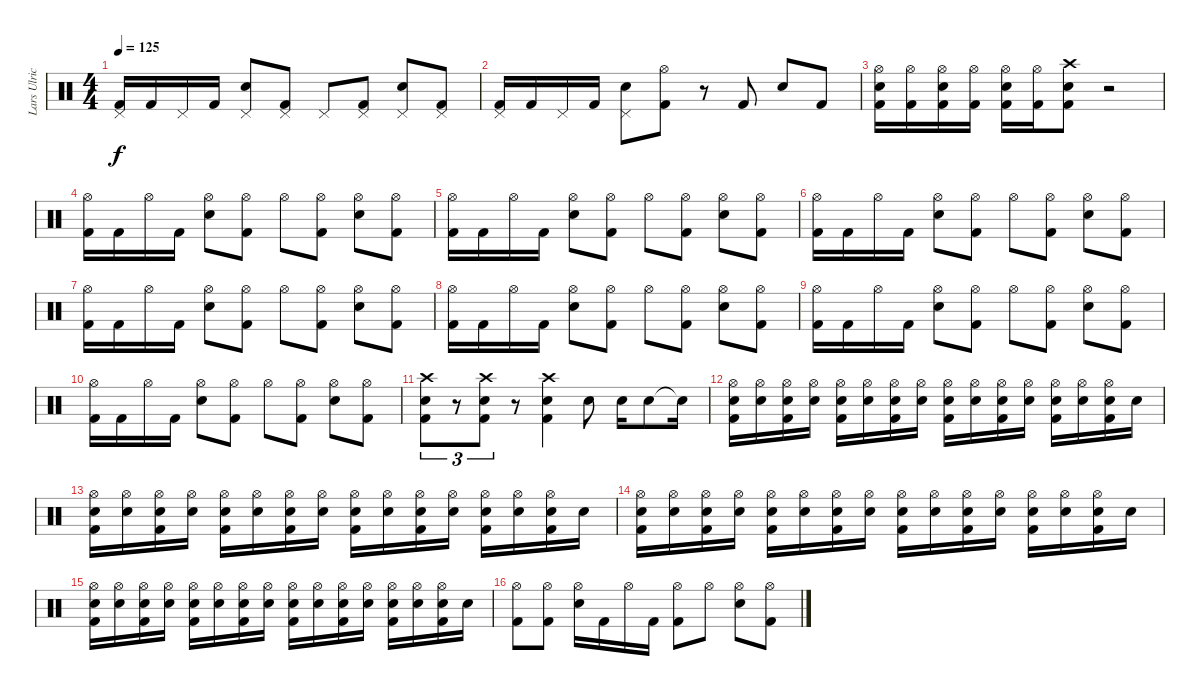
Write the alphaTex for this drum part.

\track ("Lars Ulrich" "Lars Ulric") {instrument percussion}
\staff {score}
\articulation defaults
\ts (4 4)
\tempo 125
\clef neutral
\ks c
("Pedal Hi-Hat (hit)" "Kick (hit) 2").16{dy f} "Kick (hit) 2".16 "Pedal Hi-Hat (hit)".16 "Kick (hit) 2".16 ("Pedal Hi-Hat (hit)" "Electric Snare (hit)").8 ("Pedal Hi-Hat (hit)" "Kick (hit) 2").8 "Pedal Hi-Hat (hit)".8 ("Pedal Hi-Hat (hit)" "Kick (hit) 2").8 ("Pedal Hi-Hat (hit)" "Electric Snare (hit)").8 ("Pedal Hi-Hat (hit)" "Kick (hit) 2").8 |
("Pedal Hi-Hat (hit)" "Kick (hit) 2").16 "Kick (hit) 2".16 "Pedal Hi-Hat (hit)".16 "Kick (hit) 2".16 ("Pedal Hi-Hat (hit)" "Electric Snare (hit)").8 ("Hi-Hat (open)" "Kick (hit) 2").8 r.8 "Kick (hit) 2".8 "Electric Snare (hit)".8 "Kick (hit) 2".8 |
("Hi-Hat (open)" "Electric Snare (hit)" "Kick (hit) 2").16 ("Hi-Hat (open)" "Kick (hit) 2").16 ("Hi-Hat (open)" "Electric Snare (hit)" "Kick (hit) 2").16 ("Hi-Hat (open)" "Kick (hit) 2").16 ("Hi-Hat (open)" "Electric Snare (hit)" "Kick (hit) 2").16 ("Hi-Hat (open)" "Kick (hit) 2").16 ("Crash high (hit)" "Electric Snare (hit)" "Kick (hit) 2").8 r.2 |
("Hi-Hat (open)" "Kick (hit) 2").16 "Kick (hit) 2".16 "Hi-Hat (open)".16 "Kick (hit) 2".16 ("Hi-Hat (open)" "Electric Snare (hit)").8 ("Hi-Hat (open)" "Kick (hit) 2").8 "Hi-Hat (open)".8 ("Hi-Hat (open)" "Kick (hit) 2").8 ("Hi-Hat (open)" "Electric Snare (hit)").8 ("Hi-Hat (open)" "Kick (hit) 2").8 |
("Hi-Hat (open)" "Kick (hit) 2").16 "Kick (hit) 2".16 "Hi-Hat (open)".16 "Kick (hit) 2".16 ("Hi-Hat (open)" "Electric Snare (hit)").8 ("Hi-Hat (open)" "Kick (hit) 2").8 "Hi-Hat (open)".8 ("Hi-Hat (open)" "Kick (hit) 2").8 ("Hi-Hat (open)" "Electric Snare (hit)").8 ("Hi-Hat (open)" "Kick (hit) 2").8 |
("Hi-Hat (open)" "Kick (hit) 2").16 "Kick (hit) 2".16 "Hi-Hat (open)".16 "Kick (hit) 2".16 ("Hi-Hat (open)" "Electric Snare (hit)").8 ("Hi-Hat (open)" "Kick (hit) 2").8 "Hi-Hat (open)".8 ("Hi-Hat (open)" "Kick (hit) 2").8 ("Hi-Hat (open)" "Electric Snare (hit)").8 ("Hi-Hat (open)" "Kick (hit) 2").8 |
("Hi-Hat (open)" "Kick (hit) 2").16 "Kick (hit) 2".16 "Hi-Hat (open)".16 "Kick (hit) 2".16 ("Hi-Hat (open)" "Electric Snare (hit)").8 ("Hi-Hat (open)" "Kick (hit) 2").8 "Hi-Hat (open)".8 ("Hi-Hat (open)" "Kick (hit) 2").8 ("Hi-Hat (open)" "Electric Snare (hit)").8 ("Hi-Hat (open)" "Kick (hit) 2").8 |
("Hi-Hat (open)" "Kick (hit) 2").16 "Kick (hit) 2".16 "Hi-Hat (open)".16 "Kick (hit) 2".16 ("Hi-Hat (open)" "Electric Snare (hit)").8 ("Hi-Hat (open)" "Kick (hit) 2").8 "Hi-Hat (open)".8 ("Hi-Hat (open)" "Kick (hit) 2").8 ("Hi-Hat (open)" "Electric Snare (hit)").8 ("Hi-Hat (open)" "Kick (hit) 2").8 |
("Hi-Hat (open)" "Kick (hit) 2").16 "Kick (hit) 2".16 "Hi-Hat (open)".16 "Kick (hit) 2".16 ("Hi-Hat (open)" "Electric Snare (hit)").8 ("Hi-Hat (open)" "Kick (hit) 2").8 "Hi-Hat (open)".8 ("Hi-Hat (open)" "Kick (hit) 2").8 ("Hi-Hat (open)" "Electric Snare (hit)").8 ("Hi-Hat (open)" "Kick (hit) 2").8 |
("Hi-Hat (open)" "Kick (hit) 2").16 "Kick (hit) 2".16 "Hi-Hat (open)".16 "Kick (hit) 2".16 ("Hi-Hat (open)" "Electric Snare (hit)").8 ("Hi-Hat (open)" "Kick (hit) 2").8 "Hi-Hat (open)".8 ("Hi-Hat (open)" "Kick (hit) 2").8 ("Hi-Hat (open)" "Electric Snare (hit)").8 ("Hi-Hat (open)" "Kick (hit) 2").8 |
("Crash high (hit)" "Electric Snare (hit)" "Kick (hit) 2").8{tu (3 2)} r.8{tu (3 2)} ("Crash high (hit)" "Electric Snare (hit)" "Kick (hit) 2").8{tu (3 2)} r.8 ("Crash high (hit)" "Electric Snare (hit)" "Kick (hit) 2").4 "Electric Snare (hit)".8 "Electric Snare (hit)".16 "Electric Snare (hit)".8 "Snare (hit)"{t}.16 |
("Hi-Hat (open)" "Electric Snare (hit)" "Kick (hit) 2").16 ("Hi-Hat (open)" "Electric Snare (hit)").16 ("Hi-Hat (open)" "Electric Snare (hit)" "Kick (hit) 2").16 ("Hi-Hat (open)" "Electric Snare (hit)").16 ("Hi-Hat (open)" "Electric Snare (hit)" "Kick (hit) 2").16 ("Hi-Hat (open)" "Electric Snare (hit)").16 ("Hi-Hat (open)" "Electric Snare (hit)" "Kick (hit) 2").16 ("Hi-Hat (open)" "Electric Snare (hit)").16 ("Hi-Hat (open)" "Electric Snare (hit)" "Kick (hit) 2").16 ("Hi-Hat (open)" "Electric Snare (hit)").16 ("Hi-Hat (open)" "Electric Snare (hit)" "Kick (hit) 2").16 ("Hi-Hat (open)" "Electric Snare (hit)").16 ("Hi-Hat (open)" "Electric Snare (hit)" "Kick (hit) 2").16 ("Hi-Hat (open)" "Electric Snare (hit)").16 ("Hi-Hat (open)" "Electric Snare (hit)" "Kick (hit) 2").16 "Electric Snare (hit)".16 |
("Hi-Hat (open)" "Electric Snare (hit)" "Kick (hit) 2").16 ("Hi-Hat (open)" "Electric Snare (hit)").16 ("Hi-Hat (open)" "Electric Snare (hit)" "Kick (hit) 2").16 ("Hi-Hat (open)" "Electric Snare (hit)").16 ("Hi-Hat (open)" "Electric Snare (hit)" "Kick (hit) 2").16 ("Hi-Hat (open)" "Electric Snare (hit)").16 ("Hi-Hat (open)" "Electric Snare (hit)" "Kick (hit) 2").16 ("Hi-Hat (open)" "Electric Snare (hit)").16 ("Hi-Hat (open)" "Electric Snare (hit)" "Kick (hit) 2").16 ("Hi-Hat (open)" "Electric Snare (hit)").16 ("Hi-Hat (open)" "Electric Snare (hit)" "Kick (hit) 2").16 ("Hi-Hat (open)" "Electric Snare (hit)").16 ("Hi-Hat (open)" "Electric Snare (hit)" "Kick (hit) 2").16 ("Hi-Hat (open)" "Electric Snare (hit)").16 ("Hi-Hat (open)" "Electric Snare (hit)" "Kick (hit) 2").16 "Electric Snare (hit)".16 |
("Hi-Hat (open)" "Electric Snare (hit)" "Kick (hit) 2").16 ("Hi-Hat (open)" "Electric Snare (hit)").16 ("Hi-Hat (open)" "Electric Snare (hit)" "Kick (hit) 2").16 ("Hi-Hat (open)" "Electric Snare (hit)").16 ("Hi-Hat (open)" "Electric Snare (hit)" "Kick (hit) 2").16 ("Hi-Hat (open)" "Electric Snare (hit)").16 ("Hi-Hat (open)" "Electric Snare (hit)" "Kick (hit) 2").16 ("Hi-Hat (open)" "Electric Snare (hit)").16 ("Hi-Hat (open)" "Electric Snare (hit)" "Kick (hit) 2").16 ("Hi-Hat (open)" "Electric Snare (hit)").16 ("Hi-Hat (open)" "Electric Snare (hit)" "Kick (hit) 2").16 ("Hi-Hat (open)" "Electric Snare (hit)").16 ("Hi-Hat (open)" "Electric Snare (hit)" "Kick (hit) 2").16 ("Hi-Hat (open)" "Electric Snare (hit)").16 ("Hi-Hat (open)" "Electric Snare (hit)" "Kick (hit) 2").16 "Electric Snare (hit)".16 |
("Hi-Hat (open)" "Electric Snare (hit)" "Kick (hit) 2").16 ("Hi-Hat (open)" "Electric Snare (hit)").16 ("Hi-Hat (open)" "Electric Snare (hit)" "Kick (hit) 2").16 ("Hi-Hat (open)" "Electric Snare (hit)").16 ("Hi-Hat (open)" "Electric Snare (hit)" "Kick (hit) 2").16 ("Hi-Hat (open)" "Electric Snare (hit)").16 ("Hi-Hat (open)" "Electric Snare (hit)" "Kick (hit) 2").16 ("Hi-Hat (open)" "Electric Snare (hit)").16 ("Hi-Hat (open)" "Electric Snare (hit)" "Kick (hit) 2").16 ("Hi-Hat (open)" "Electric Snare (hit)").16 ("Hi-Hat (open)" "Electric Snare (hit)" "Kick (hit) 2").16 ("Hi-Hat (open)" "Electric Snare (hit)").16 ("Hi-Hat (open)" "Electric Snare (hit)" "Kick (hit) 2").16 ("Hi-Hat (open)" "Electric Snare (hit)").16 ("Hi-Hat (open)" "Electric Snare (hit)" "Kick (hit) 2").16 "Electric Snare (hit)".16 |
("Hi-Hat (open)" "Kick (hit) 2").8 ("Hi-Hat (open)" "Kick (hit) 2").8 ("Hi-Hat (open)" "Electric Snare (hit)").16 "Kick (hit) 2".16 "Hi-Hat (open)".16 "Kick (hit) 2".16 ("Hi-Hat (open)" "Kick (hit) 2").8 "Hi-Hat (open)".8 ("Hi-Hat (open)" "Electric Snare (hit)").8 ("Hi-Hat (open)" "Kick (hit) 2").8
